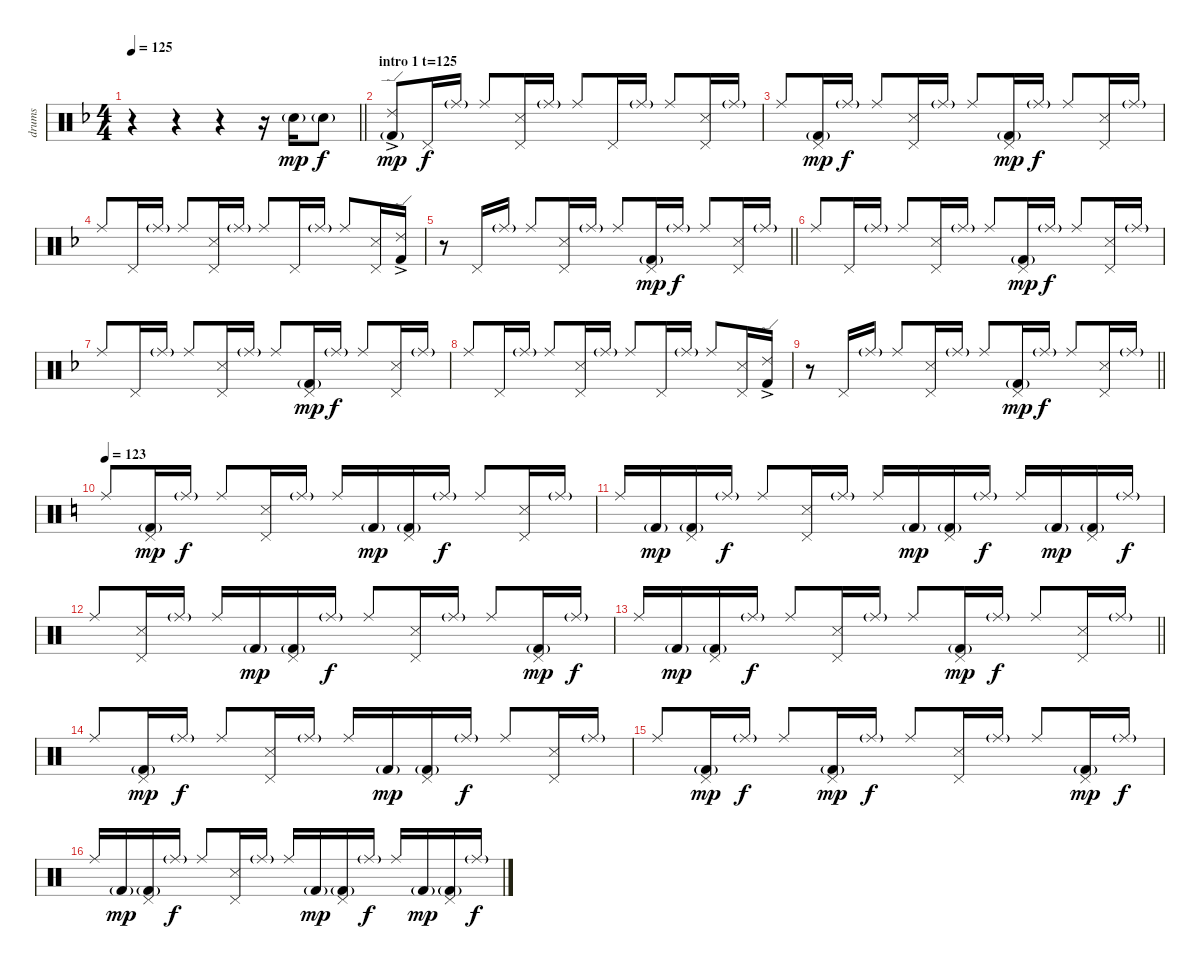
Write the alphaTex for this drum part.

\track ("drums" "drums") {instrument percussion}
\staff {score}
\articulation defaults
\ts (4 4)
\tempo 125
\clef neutral
\barLineRight lightlight
\ks f
r.4{dy mp} r.4 r.4 r.16 "Electric Snare (hit)"{g}.16 "Electric Snare (hit)"{g}.8{dy f} |
\section ("" "intro 1 t=125")
("Ride (edge) 2"{ac} "Kick (hit) 2"{g}).8{dy mp} "Pedal Hi-Hat (hit)".16{dy f} "Ride (middle)"{g}.16 "Ride (middle)".8 ("Pedal Hi-Hat (hit)" "Snare (side stick) 3").16 "Ride (middle)"{g}.16 "Ride (middle)".8 "Pedal Hi-Hat (hit)".16 "Ride (middle)"{g}.16 "Ride (middle)".8 ("Pedal Hi-Hat (hit)" "Snare (side stick) 3").16 "Ride (middle)"{g}.16 |
"Ride (middle)".8 ("Pedal Hi-Hat (hit)" "Kick (hit) 2"{g}).16{dy mp} "Ride (middle)"{g}.16{dy f} "Ride (middle)".8 ("Pedal Hi-Hat (hit)" "Snare (side stick) 3").16 "Ride (middle)"{g}.16 "Ride (middle)".8 ("Pedal Hi-Hat (hit)" "Kick (hit) 2"{g}).16{dy mp} "Ride (middle)"{g}.16{dy f} "Ride (middle)".8 ("Pedal Hi-Hat (hit)" "Snare (side stick) 3").16 "Ride (middle)"{g}.16 |
"Ride (middle)".8 "Pedal Hi-Hat (hit)".16 "Ride (middle)"{g}.16 "Ride (middle)".8 ("Pedal Hi-Hat (hit)" "Snare (side stick) 3").16 "Ride (middle)"{g}.16 "Ride (middle)".8 "Pedal Hi-Hat (hit)".16 "Ride (middle)"{g}.16 "Ride (middle)".8 ("Pedal Hi-Hat (hit)" "Snare (side stick) 3").16 ("Ride (edge) 2"{ac} "Kick (hit) 2").16 |
\barLineRight lightlight
r.8 "Pedal Hi-Hat (hit)".16 "Ride (middle)"{g}.16 "Ride (middle)".8 ("Pedal Hi-Hat (hit)" "Snare (side stick) 3").16 "Ride (middle)"{g}.16 "Ride (middle)".8 ("Pedal Hi-Hat (hit)" "Kick (hit) 2"{g}).16{dy mp} "Ride (middle)"{g}.16{dy f} "Ride (middle)".8 ("Pedal Hi-Hat (hit)" "Snare (side stick) 3").16 "Ride (middle)"{g}.16 |
"Ride (middle)".8 "Pedal Hi-Hat (hit)".16 "Ride (middle)"{g}.16 "Ride (middle)".8 ("Pedal Hi-Hat (hit)" "Snare (side stick) 3").16 "Ride (middle)"{g}.16 "Ride (middle)".8 ("Pedal Hi-Hat (hit)" "Kick (hit) 2"{g}).16{dy mp} "Ride (middle)"{g}.16{dy f} "Ride (middle)".8 ("Pedal Hi-Hat (hit)" "Snare (side stick) 3").16 "Ride (middle)"{g}.16 |
"Ride (middle)".8 "Pedal Hi-Hat (hit)".16 "Ride (middle)"{g}.16 "Ride (middle)".8 ("Pedal Hi-Hat (hit)" "Snare (side stick) 3").16 "Ride (middle)"{g}.16 "Ride (middle)".8 ("Pedal Hi-Hat (hit)" "Kick (hit) 2"{g}).16{dy mp} "Ride (middle)"{g}.16{dy f} "Ride (middle)".8 ("Pedal Hi-Hat (hit)" "Snare (side stick) 3").16 "Ride (middle)"{g}.16 |
"Ride (middle)".8 "Pedal Hi-Hat (hit)".16 "Ride (middle)"{g}.16 "Ride (middle)".8 ("Pedal Hi-Hat (hit)" "Snare (side stick) 3").16 "Ride (middle)"{g}.16 "Ride (middle)".8 "Pedal Hi-Hat (hit)".16 "Ride (middle)"{g}.16 "Ride (middle)".8 ("Pedal Hi-Hat (hit)" "Snare (side stick) 3").16 ("Ride (edge) 2"{ac} "Kick (hit) 2").16 |
\barLineRight lightlight
r.8 "Pedal Hi-Hat (hit)".16 "Ride (middle)"{g}.16 "Ride (middle)".8 ("Pedal Hi-Hat (hit)" "Snare (side stick) 3").16 "Ride (middle)"{g}.16 "Ride (middle)".8 ("Pedal Hi-Hat (hit)" "Kick (hit) 2"{g}).16{dy mp} "Ride (middle)"{g}.16{dy f} "Ride (middle)".8 ("Pedal Hi-Hat (hit)" "Snare (side stick) 3").16 "Ride (middle)"{g}.16 |
\tempo 123
\ks c "Ride (middle)".8
("Pedal Hi-Hat (hit)" "Kick (hit) 2"{g}).16{dy mp} "Ride (middle)"{g}.16{dy f} "Ride (middle)".8 ("Pedal Hi-Hat (hit)" "Snare (side stick) 3").16 "Ride (middle)"{g}.16 "Ride (middle)".16 "Kick (hit) 2"{g}.16{dy mp} ("Pedal Hi-Hat (hit)" "Kick (hit) 2"{g}).16 "Ride (middle)"{g}.16{dy f} "Ride (middle)".8 ("Pedal Hi-Hat (hit)" "Snare (side stick) 3").16 "Ride (middle)"{g}.16 |
"Ride (middle)".16 "Kick (hit) 2"{g}.16{dy mp} ("Pedal Hi-Hat (hit)" "Kick (hit) 2"{g}).16 "Ride (middle)"{g}.16{dy f} "Ride (middle)".8 ("Pedal Hi-Hat (hit)" "Snare (side stick) 3").16 "Ride (middle)"{g}.16 "Ride (middle)".16 "Kick (hit) 2"{g}.16{dy mp} ("Pedal Hi-Hat (hit)" "Kick (hit) 2"{g}).16 "Ride (middle)"{g}.16{dy f} "Ride (middle)".16 "Kick (hit) 2"{g}.16{dy mp} ("Pedal Hi-Hat (hit)" "Kick (hit) 2"{g}).16 "Ride (middle)"{g}.16{dy f} |
"Ride (middle)".8 ("Pedal Hi-Hat (hit)" "Snare (side stick) 3").16 "Ride (middle)"{g}.16 "Ride (middle)".16 "Kick (hit) 2"{g}.16{dy mp} ("Pedal Hi-Hat (hit)" "Kick (hit) 2"{g}).16 "Ride (middle)"{g}.16{dy f} "Ride (middle)".8 ("Pedal Hi-Hat (hit)" "Snare (side stick) 3").16 "Ride (middle)"{g}.16 "Ride (middle)".8 ("Pedal Hi-Hat (hit)" "Kick (hit) 2"{g}).16{dy mp} "Ride (middle)"{g}.16{dy f} |
\barLineRight lightlight "Ride (middle)".16 "Kick (hit) 2"{g}.16{dy mp}
("Pedal Hi-Hat (hit)" "Kick (hit) 2"{g}).16 "Ride (middle)"{g}.16{dy f} "Ride (middle)".8 ("Pedal Hi-Hat (hit)" "Snare (side stick) 3").16 "Ride (middle)"{g}.16 "Ride (middle)".8 ("Pedal Hi-Hat (hit)" "Kick (hit) 2"{g}).16{dy mp} "Ride (middle)"{g}.16{dy f} "Ride (middle)".8 ("Pedal Hi-Hat (hit)" "Snare (side stick) 3").16 "Ride (middle)"{g}.16 |
"Ride (middle)".8 ("Pedal Hi-Hat (hit)" "Kick (hit) 2"{g}).16{dy mp} "Ride (middle)"{g}.16{dy f} "Ride (middle)".8 ("Pedal Hi-Hat (hit)" "Snare (side stick) 3").16 "Ride (middle)"{g}.16 "Ride (middle)".16 "Kick (hit) 2"{g}.16{dy mp} ("Pedal Hi-Hat (hit)" "Kick (hit) 2"{g}).16 "Ride (middle)"{g}.16{dy f} "Ride (middle)".8 ("Pedal Hi-Hat (hit)" "Snare (side stick) 3").16 "Ride (middle)"{g}.16 |
"Ride (middle)".8 ("Pedal Hi-Hat (hit)" "Kick (hit) 2"{g}).16{dy mp} "Ride (middle)"{g}.16{dy f} "Ride (middle)".8 ("Pedal Hi-Hat (hit)" "Kick (hit) 2"{g}).16{dy mp} "Ride (middle)"{g}.16{dy f} "Ride (middle)".8 ("Pedal Hi-Hat (hit)" "Snare (side stick) 3").16 "Ride (middle)"{g}.16 "Ride (middle)".8 ("Pedal Hi-Hat (hit)" "Kick (hit) 2"{g}).16{dy mp} "Ride (middle)"{g}.16{dy f} |
"Ride (middle)".16 "Kick (hit) 2"{g}.16{dy mp} ("Pedal Hi-Hat (hit)" "Kick (hit) 2"{g}).16 "Ride (middle)"{g}.16{dy f} "Ride (middle)".8 ("Pedal Hi-Hat (hit)" "Snare (side stick) 3").16 "Ride (middle)"{g}.16 "Ride (middle)".16 "Kick (hit) 2"{g}.16{dy mp} ("Pedal Hi-Hat (hit)" "Kick (hit) 2"{g}).16 "Ride (middle)"{g}.16{dy f} "Ride (middle)".16 "Kick (hit) 2"{g}.16{dy mp} ("Pedal Hi-Hat (hit)" "Kick (hit) 2"{g}).16 "Ride (middle)"{g}.16{dy f}
